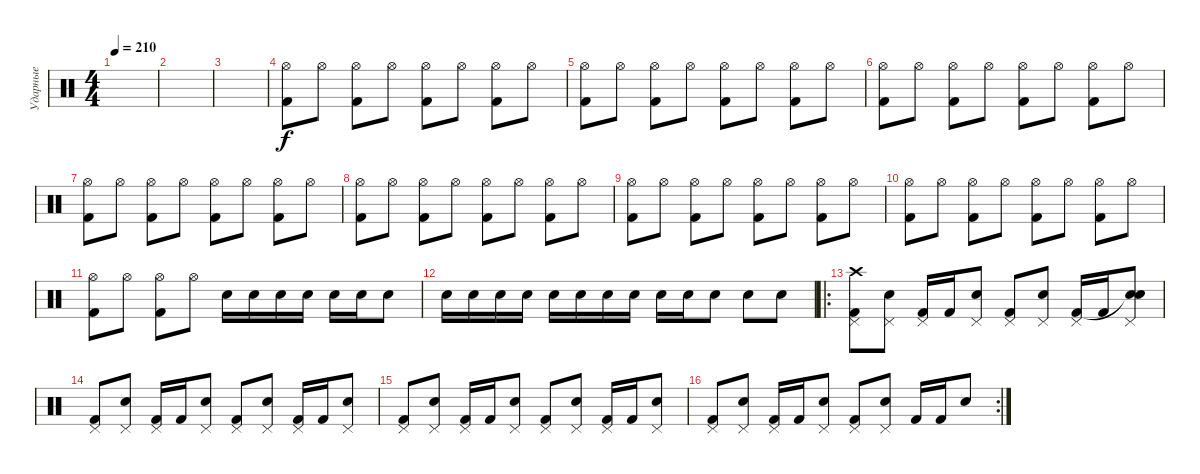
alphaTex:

\track ("Ударные" "Ударные") {instrument percussion}
\staff {score}
\articulation defaults
\ts (4 4)
\tempo 210
\clef neutral
\ks c
|
|
|
("Hi-Hat (open)" "Kick (hit) 2").8 "Hi-Hat (open)".8 ("Hi-Hat (open)" "Kick (hit) 2").8 "Hi-Hat (open)".8 ("Hi-Hat (open)" "Kick (hit) 2").8 "Hi-Hat (open)".8 ("Hi-Hat (open)" "Kick (hit) 2").8 "Hi-Hat (open)".8 |
("Hi-Hat (open)" "Kick (hit) 2").8 "Hi-Hat (open)".8 ("Hi-Hat (open)" "Kick (hit) 2").8 "Hi-Hat (open)".8 ("Hi-Hat (open)" "Kick (hit) 2").8 "Hi-Hat (open)".8 ("Hi-Hat (open)" "Kick (hit) 2").8 "Hi-Hat (open)".8 |
("Hi-Hat (open)" "Kick (hit) 2").8 "Hi-Hat (open)".8 ("Hi-Hat (open)" "Kick (hit) 2").8 "Hi-Hat (open)".8 ("Hi-Hat (open)" "Kick (hit) 2").8 "Hi-Hat (open)".8 ("Hi-Hat (open)" "Kick (hit) 2").8 "Hi-Hat (open)".8 |
("Hi-Hat (open)" "Kick (hit) 2").8 "Hi-Hat (open)".8 ("Hi-Hat (open)" "Kick (hit) 2").8 "Hi-Hat (open)".8 ("Hi-Hat (open)" "Kick (hit) 2").8 "Hi-Hat (open)".8 ("Hi-Hat (open)" "Kick (hit) 2").8 "Hi-Hat (open)".8 |
("Hi-Hat (open)" "Kick (hit) 2").8 "Hi-Hat (open)".8 ("Hi-Hat (open)" "Kick (hit) 2").8 "Hi-Hat (open)".8 ("Hi-Hat (open)" "Kick (hit) 2").8 "Hi-Hat (open)".8 ("Hi-Hat (open)" "Kick (hit) 2").8 "Hi-Hat (open)".8 |
("Hi-Hat (open)" "Kick (hit) 2").8 "Hi-Hat (open)".8 ("Hi-Hat (open)" "Kick (hit) 2").8 "Hi-Hat (open)".8 ("Hi-Hat (open)" "Kick (hit) 2").8 "Hi-Hat (open)".8 ("Hi-Hat (open)" "Kick (hit) 2").8 "Hi-Hat (open)".8 |
("Hi-Hat (open)" "Kick (hit) 2").8 "Hi-Hat (open)".8 ("Hi-Hat (open)" "Kick (hit) 2").8 "Hi-Hat (open)".8 ("Hi-Hat (open)" "Kick (hit) 2").8 "Hi-Hat (open)".8 ("Hi-Hat (open)" "Kick (hit) 2").8 "Hi-Hat (open)".8 |
("Hi-Hat (open)" "Kick (hit) 2").8 "Hi-Hat (open)".8 ("Hi-Hat (open)" "Kick (hit) 2").8 "Hi-Hat (open)".8 "Electric Snare (hit)".16 "Electric Snare (hit)".16 "Electric Snare (hit)".16 "Electric Snare (hit)".16 "Electric Snare (hit)".16 "Electric Snare (hit)".16 "Electric Snare (hit)".8 |
"Electric Snare (hit)".16 "Electric Snare (hit)".16 "Electric Snare (hit)".16 "Electric Snare (hit)".16 "Electric Snare (hit)".16 "Electric Snare (hit)".16 "Electric Snare (hit)".16 "Electric Snare (hit)".16 "Electric Snare (hit)".16 "Electric Snare (hit)".16 "Electric Snare (hit)".8 "Electric Snare (hit)".8 "Electric Snare (hit)".8 |
\ro
("Pedal Hi-Hat (hit)" "Crash high (hit)" "Kick (hit) 2").8 ("Pedal Hi-Hat (hit)" "Snare (hit) 2").8 ("Pedal Hi-Hat (hit)" "Kick (hit) 2").16 "Kick (hit) 2".16 ("Pedal Hi-Hat (hit)" "Snare (hit) 2").8 ("Pedal Hi-Hat (hit)" "Kick (hit) 2").8 ("Pedal Hi-Hat (hit)" "Snare (hit) 2").8 ("Pedal Hi-Hat (hit)" "Kick (hit) 2").16 "Kick (hit) 2".16 ("Pedal Hi-Hat (hit)" "Snare (hit)"{t} "Snare (hit) 2").8 |
("Pedal Hi-Hat (hit)" "Kick (hit) 2").8 ("Pedal Hi-Hat (hit)" "Snare (hit) 2").8 ("Pedal Hi-Hat (hit)" "Kick (hit) 2").16 "Kick (hit) 2".16 ("Pedal Hi-Hat (hit)" "Snare (hit) 2").8 ("Pedal Hi-Hat (hit)" "Kick (hit) 2").8 ("Pedal Hi-Hat (hit)" "Snare (hit) 2").8 ("Pedal Hi-Hat (hit)" "Kick (hit) 2").16 "Kick (hit) 2".16 ("Pedal Hi-Hat (hit)" "Snare (hit) 2").8 |
("Pedal Hi-Hat (hit)" "Kick (hit) 2").8 ("Pedal Hi-Hat (hit)" "Snare (hit) 2").8 ("Pedal Hi-Hat (hit)" "Kick (hit) 2").16 "Kick (hit) 2".16 ("Pedal Hi-Hat (hit)" "Snare (hit) 2").8 ("Pedal Hi-Hat (hit)" "Kick (hit) 2").8 ("Pedal Hi-Hat (hit)" "Snare (hit) 2").8 ("Pedal Hi-Hat (hit)" "Kick (hit) 2").16 "Kick (hit) 2".16 ("Pedal Hi-Hat (hit)" "Snare (hit) 2").8 |
\rc 2
("Pedal Hi-Hat (hit)" "Kick (hit) 2").8 ("Pedal Hi-Hat (hit)" "Snare (hit) 2").8 ("Pedal Hi-Hat (hit)" "Kick (hit) 2").16 "Kick (hit) 2".16 ("Pedal Hi-Hat (hit)" "Snare (hit) 2").8 ("Pedal Hi-Hat (hit)" "Kick (hit) 2").8 ("Pedal Hi-Hat (hit)" "Snare (hit) 2").8 "Kick (hit) 2".16 "Kick (hit) 2".16 "Snare (hit) 2".8
